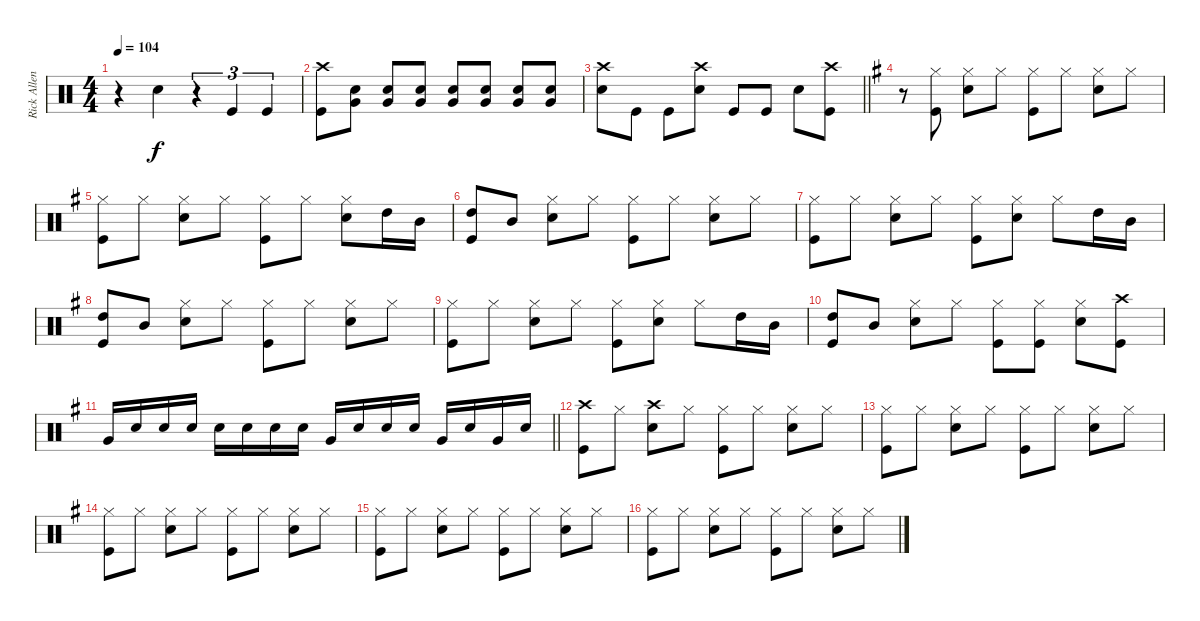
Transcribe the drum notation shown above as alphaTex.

\track ("Rick Allen" "Rick Allen") {instrument percussion}
\staff {score}
\articulation defaults
\ts (4 4)
\tempo 104
\clef neutral
\ks aminor
r.4{dy f} "Snare (hit) 2".4 r.4{tu (3 2)} "Kick (hit)".4{tu (3 2)} "Kick (hit)".4{tu (3 2)} |
("Crash high (hit)" "Kick (hit)").8 ("Snare (hit) 2" "Very Low Tom (hit)").8 ("Snare (hit) 2" "Very Low Tom (hit)").8 ("Snare (hit) 2" "Very Low Tom (hit)").8 ("Snare (hit) 2" "Very Low Tom (hit)").8 ("Snare (hit) 2" "Very Low Tom (hit)").8 ("Snare (hit) 2" "Very Low Tom (hit)").8 ("Snare (hit) 2" "Very Low Tom (hit)").8 |
\barLineRight lightlight
("Crash high (hit)" "Snare (hit) 2").8 "Kick (hit)".8 "Kick (hit)".8 ("Crash high (hit)" "Snare (hit) 2").8 "Kick (hit)".8 "Kick (hit)".8 "Snare (hit) 2".8 ("Crash high (hit)" "Kick (hit)").8 |
\ks eminor
r.8 ("Hi-Hat (closed)" "Kick (hit)").8 ("Hi-Hat (closed)" "Snare (hit) 2").8 "Hi-Hat (closed)".8 ("Hi-Hat (closed)" "Kick (hit)").8 "Hi-Hat (closed)".8 ("Hi-Hat (closed)" "Snare (hit) 2").8 "Hi-Hat (closed)".8 |
("Hi-Hat (closed)" "Kick (hit)").8 "Hi-Hat (closed)".8 ("Hi-Hat (closed)" "Snare (hit) 2").8 "Hi-Hat (closed)".8 ("Hi-Hat (closed)" "Kick (hit)").8 "Hi-Hat (closed)".8 ("Hi-Hat (closed)" "Snare (hit) 2").8 "High Tom (hit)".16 "Mid Tom (hit)".16 |
("High Tom (hit)" "Kick (hit)").8 "Mid Tom (hit)".8 ("Hi-Hat (closed)" "Snare (hit) 2").8 "Hi-Hat (closed)".8 ("Hi-Hat (closed)" "Kick (hit)").8 "Hi-Hat (closed)".8 ("Hi-Hat (closed)" "Snare (hit) 2").8 "Hi-Hat (closed)".8 |
("Hi-Hat (closed)" "Kick (hit)").8 "Hi-Hat (closed)".8 ("Hi-Hat (closed)" "Snare (hit) 2").8 "Hi-Hat (closed)".8 ("Hi-Hat (closed)" "Kick (hit)").8 ("Hi-Hat (closed)" "Snare (hit) 2").8 "Hi-Hat (closed)".8 "High Tom (hit)".16 "Mid Tom (hit)".16 |
("High Tom (hit)" "Kick (hit)").8 "Mid Tom (hit)".8 ("Hi-Hat (closed)" "Snare (hit) 2").8 "Hi-Hat (closed)".8 ("Hi-Hat (closed)" "Kick (hit)").8 "Hi-Hat (closed)".8 ("Hi-Hat (closed)" "Snare (hit) 2").8 "Hi-Hat (closed)".8 |
("Hi-Hat (closed)" "Kick (hit)").8 "Hi-Hat (closed)".8 ("Hi-Hat (closed)" "Snare (hit) 2").8 "Hi-Hat (closed)".8 ("Hi-Hat (closed)" "Kick (hit)").8 ("Hi-Hat (closed)" "Snare (hit) 2").8 "Hi-Hat (closed)".8 "High Tom (hit)".16 "Mid Tom (hit)".16 |
("High Tom (hit)" "Kick (hit)").8 "Mid Tom (hit)".8 ("Hi-Hat (closed)" "Snare (hit) 2").8 "Hi-Hat (closed)".8 ("Hi-Hat (closed)" "Kick (hit)").8 ("Hi-Hat (closed)" "Kick (hit)").8 ("Hi-Hat (closed)" "Snare (hit) 2").8 ("Crash high (hit)" "Kick (hit)").8 |
\barLineRight lightlight "Very Low Tom (hit)".16 "Snare (hit) 2".16 "Snare (hit) 2".16 "Snare (hit) 2".16 "Snare (hit) 2".16 "Snare (hit) 2".16 "Snare (hit) 2".16 "Snare (hit) 2".16 "Very Low Tom (hit)".16 "Snare (hit) 2".16 "Snare (hit) 2".16 "Snare (hit) 2".16 "Very Low Tom (hit)".16 "Snare (hit) 2".16 "Very Low Tom (hit)".16 "Snare (hit) 2".16
|
("Crash high (hit)" "Kick (hit)").8 "Hi-Hat (closed)".8 ("Crash high (hit)" "Snare (hit) 2").8 "Hi-Hat (closed)".8 ("Hi-Hat (closed)" "Kick (hit)").8 "Hi-Hat (closed)".8 ("Hi-Hat (closed)" "Snare (hit) 2").8 "Hi-Hat (closed)".8 |
("Hi-Hat (closed)" "Kick (hit)").8 "Hi-Hat (closed)".8 ("Hi-Hat (closed)" "Snare (hit) 2").8 "Hi-Hat (closed)".8 ("Hi-Hat (closed)" "Kick (hit)").8 "Hi-Hat (closed)".8 ("Hi-Hat (closed)" "Snare (hit) 2").8 "Hi-Hat (closed)".8 |
("Hi-Hat (closed)" "Kick (hit)").8 "Hi-Hat (closed)".8 ("Hi-Hat (closed)" "Snare (hit) 2").8 "Hi-Hat (closed)".8 ("Hi-Hat (closed)" "Kick (hit)").8 "Hi-Hat (closed)".8 ("Hi-Hat (closed)" "Snare (hit) 2").8 "Hi-Hat (closed)".8 |
("Hi-Hat (closed)" "Kick (hit)").8 "Hi-Hat (closed)".8 ("Hi-Hat (closed)" "Snare (hit) 2").8 "Hi-Hat (closed)".8 ("Hi-Hat (closed)" "Kick (hit)").8 "Hi-Hat (closed)".8 ("Hi-Hat (closed)" "Snare (hit) 2").8 "Hi-Hat (closed)".8 |
("Hi-Hat (closed)" "Kick (hit)").8 "Hi-Hat (closed)".8 ("Hi-Hat (closed)" "Snare (hit) 2").8 "Hi-Hat (closed)".8 ("Hi-Hat (closed)" "Kick (hit)").8 "Hi-Hat (closed)".8 ("Hi-Hat (closed)" "Snare (hit) 2").8 "Hi-Hat (closed)".8
